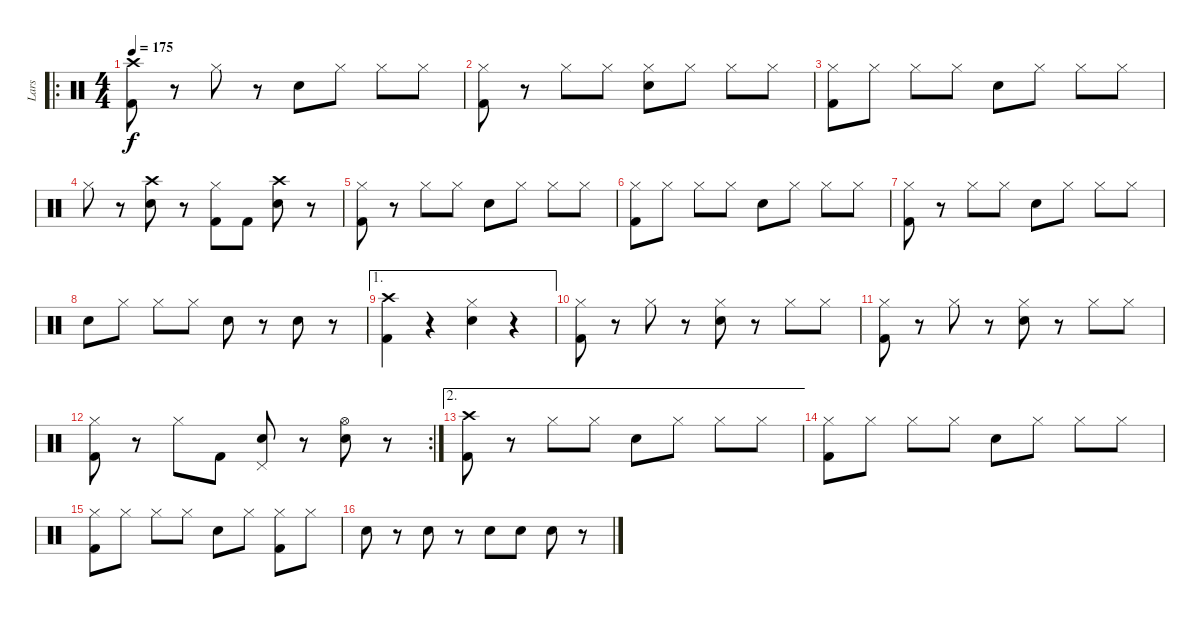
\track ("Lars" "Lars") {instrument percussion}
\staff {score}
\articulation defaults
\ro
\ts (4 4)
\tempo 175
\clef neutral
\ks c
("Crash high (hit)" "Kick (hit) 2").8{dy f} r.8 "Hi-Hat (closed)".8 r.8 "Electric Snare (hit)".8 "Hi-Hat (closed)".8 "Hi-Hat (closed)".8 "Hi-Hat (closed)".8 |
("Hi-Hat (closed)" "Kick (hit) 2").8 r.8 "Hi-Hat (closed)".8 "Hi-Hat (closed)".8 ("Hi-Hat (closed)" "Electric Snare (hit)").8 "Hi-Hat (closed)".8 "Hi-Hat (closed)".8 "Hi-Hat (closed)".8 |
("Hi-Hat (closed)" "Kick (hit) 2").8 "Hi-Hat (closed)".8 "Hi-Hat (closed)".8 "Hi-Hat (closed)".8 "Electric Snare (hit)".8 "Hi-Hat (closed)".8 "Hi-Hat (closed)".8 "Hi-Hat (closed)".8 |
"Hi-Hat (closed)".8 r.8 ("Crash high (hit)" "Electric Snare (hit)").8 r.8 ("Hi-Hat (closed)" "Kick (hit) 2").8 "Kick (hit) 2".8 ("Crash high (hit)" "Electric Snare (hit)").8 r.8 |
("Hi-Hat (closed)" "Kick (hit) 2").8 r.8 "Hi-Hat (closed)".8 "Hi-Hat (closed)".8 "Electric Snare (hit)".8 "Hi-Hat (closed)".8 "Hi-Hat (closed)".8 "Hi-Hat (closed)".8 |
("Hi-Hat (closed)" "Kick (hit) 2").8 "Hi-Hat (closed)".8 "Hi-Hat (closed)".8 "Hi-Hat (closed)".8 "Electric Snare (hit)".8 "Hi-Hat (closed)".8 "Hi-Hat (closed)".8 "Hi-Hat (closed)".8 |
("Hi-Hat (closed)" "Kick (hit) 2").8 r.8 "Hi-Hat (closed)".8 "Hi-Hat (closed)".8 "Electric Snare (hit)".8 "Hi-Hat (closed)".8 "Hi-Hat (closed)".8 "Hi-Hat (closed)".8 |
"Electric Snare (hit)".8 "Hi-Hat (closed)".8 "Hi-Hat (closed)".8 "Hi-Hat (closed)".8 "Electric Snare (hit)".8 r.8 "Electric Snare (hit)".8 r.8 |
\ae 1
("Crash high (hit)" "Kick (hit) 2").4 r.4 ("Hi-Hat (closed)" "Electric Snare (hit)").4 r.4 |
("Hi-Hat (closed)" "Kick (hit) 2").8 r.8 "Hi-Hat (closed)".8 r.8 ("Hi-Hat (closed)" "Electric Snare (hit)").8 r.8 "Hi-Hat (closed)".8 "Hi-Hat (closed)".8 |
("Hi-Hat (closed)" "Kick (hit) 2").8 r.8 "Hi-Hat (closed)".8 r.8 ("Hi-Hat (closed)" "Electric Snare (hit)").8 r.8 "Hi-Hat (closed)".8 "Hi-Hat (closed)".8 |
\rc 2
("Hi-Hat (closed)" "Kick (hit) 2").8 r.8 "Hi-Hat (closed)".8 "Kick (hit) 2".8 ("Pedal Hi-Hat (hit)" "Electric Snare (hit)").8 r.8 ("Hi-Hat (open)" "Electric Snare (hit)").8 r.8 |
\ae 2
("Crash high (hit)" "Kick (hit) 2").8 r.8 "Hi-Hat (closed)".8 "Hi-Hat (closed)".8 "Electric Snare (hit)".8 "Hi-Hat (closed)".8 "Hi-Hat (closed)".8 "Hi-Hat (closed)".8 |
("Hi-Hat (closed)" "Kick (hit) 2").8 "Hi-Hat (closed)".8 "Hi-Hat (closed)".8 "Hi-Hat (closed)".8 "Electric Snare (hit)".8 "Hi-Hat (closed)".8 "Hi-Hat (closed)".8 "Hi-Hat (closed)".8 |
("Hi-Hat (closed)" "Kick (hit) 2").8 "Hi-Hat (closed)".8 "Hi-Hat (closed)".8 "Hi-Hat (closed)".8 "Electric Snare (hit)".8 "Hi-Hat (closed)".8 ("Hi-Hat (closed)" "Kick (hit) 2").8 "Hi-Hat (closed)".8 |
"Electric Snare (hit)".8 r.8 "Electric Snare (hit)".8 r.8 "Electric Snare (hit)".8 "Electric Snare (hit)".8 "Electric Snare (hit)".8 r.8
